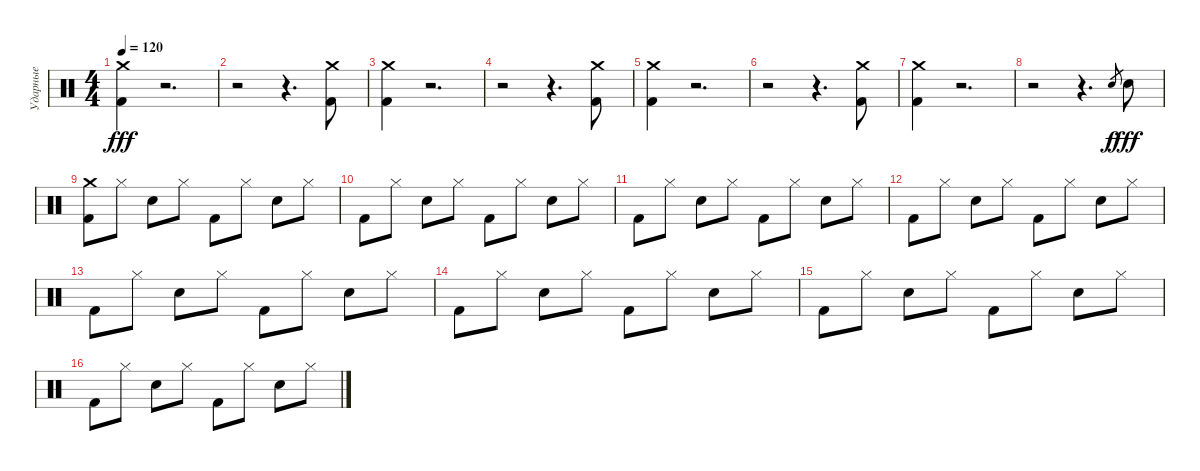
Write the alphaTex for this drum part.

\track ("Ударные" "Ударные") {instrument percussion}
\staff {score}
\articulation defaults
\ts (4 4)
\tempo 120
\clef neutral
\ks c
("Crash medium (hit)" "Kick (hit) 2").4{dy fff} r.2{d} |
r.2 r.4{d} ("Crash medium (hit)" "Kick (hit) 2").8 |
("Crash medium (hit)" "Kick (hit) 2").4 r.2{d} |
r.2 r.4{d} ("Crash medium (hit)" "Kick (hit) 2").8 |
("Crash medium (hit)" "Kick (hit) 2").4 r.2{d} |
r.2 r.4{d} ("Crash medium (hit)" "Kick (hit) 2").8 |
("Crash medium (hit)" "Kick (hit) 2").4 r.2{d} |
r.2 r.4{d} "Electric Snare (hit)".8{gr dy f} "Electric Snare (hit)".8{dy fff} |
("Crash medium (hit)" "Kick (hit) 2").8 "Hi-Hat (closed)".8 "Electric Snare (hit)".8 "Hi-Hat (closed)".8 "Kick (hit) 2".8 "Hi-Hat (closed)".8 "Electric Snare (hit)".8 "Hi-Hat (closed)".8 |
"Kick (hit) 2".8 "Hi-Hat (closed)".8 "Electric Snare (hit)".8 "Hi-Hat (closed)".8 "Kick (hit) 2".8 "Hi-Hat (closed)".8 "Electric Snare (hit)".8 "Hi-Hat (closed)".8 |
"Kick (hit) 2".8 "Hi-Hat (closed)".8 "Electric Snare (hit)".8 "Hi-Hat (closed)".8 "Kick (hit) 2".8 "Hi-Hat (closed)".8 "Electric Snare (hit)".8 "Hi-Hat (closed)".8 |
"Kick (hit) 2".8 "Hi-Hat (closed)".8 "Electric Snare (hit)".8 "Hi-Hat (closed)".8 "Kick (hit) 2".8 "Hi-Hat (closed)".8 "Electric Snare (hit)".8 "Hi-Hat (closed)".8 |
"Kick (hit) 2".8 "Hi-Hat (closed)".8 "Electric Snare (hit)".8 "Hi-Hat (closed)".8 "Kick (hit) 2".8 "Hi-Hat (closed)".8 "Electric Snare (hit)".8 "Hi-Hat (closed)".8 |
"Kick (hit) 2".8 "Hi-Hat (closed)".8 "Electric Snare (hit)".8 "Hi-Hat (closed)".8 "Kick (hit) 2".8 "Hi-Hat (closed)".8 "Electric Snare (hit)".8 "Hi-Hat (closed)".8 |
"Kick (hit) 2".8 "Hi-Hat (closed)".8 "Electric Snare (hit)".8 "Hi-Hat (closed)".8 "Kick (hit) 2".8 "Hi-Hat (closed)".8 "Electric Snare (hit)".8 "Hi-Hat (closed)".8 |
"Kick (hit) 2".8 "Hi-Hat (closed)".8 "Electric Snare (hit)".8 "Hi-Hat (closed)".8 "Kick (hit) 2".8 "Hi-Hat (closed)".8 "Electric Snare (hit)".8 "Hi-Hat (closed)".8
